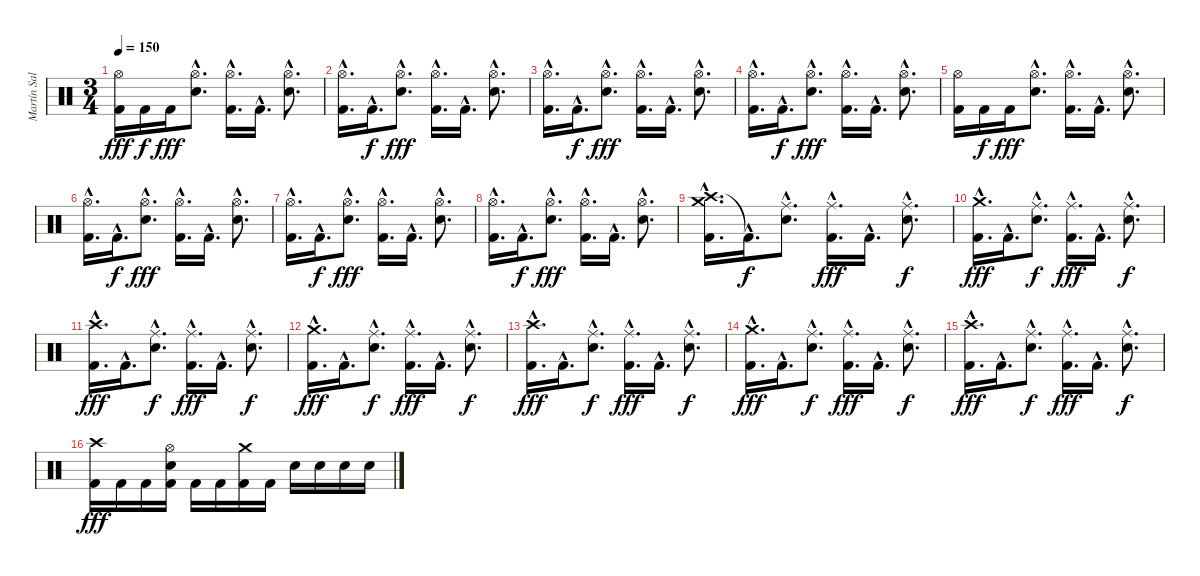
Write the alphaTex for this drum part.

\track ("Martín Salariato" "Martín Sal") {instrument percussion}
\staff {score}
\articulation defaults
\ts (3 4)
\tempo 150
\clef neutral
\ks c
("Hi-Hat (open)" "Kick (hit) 2").16{dy fff} "Kick (hit) 2".16{dy f} "Kick (hit) 2".16{dy fff} ("Hi-Hat (open)"{hac} "Snare (hit) 2"{hac}).8{d} ("Hi-Hat (open)"{hac} "Kick (hit) 2"{hac}).16{d} "Kick (hit) 2"{hac}.16{d} ("Hi-Hat (open)"{hac} "Snare (hit) 2"{hac}).8{d} |
("Hi-Hat (open)"{hac} "Kick (hit) 2"{hac}).16{d} "Kick (hit) 2"{hac}.16{d dy f} ("Hi-Hat (open)"{hac} "Snare (hit) 2"{hac}).8{d dy fff} ("Hi-Hat (open)"{hac} "Kick (hit) 2"{hac}).16{d} "Kick (hit) 2"{hac}.16{d} ("Hi-Hat (open)"{hac} "Snare (hit) 2"{hac}).8{d} |
("Hi-Hat (open)"{hac} "Kick (hit) 2"{hac}).16{d} "Kick (hit) 2"{hac}.16{d dy f} ("Hi-Hat (open)"{hac} "Snare (hit) 2"{hac}).8{d dy fff} ("Hi-Hat (open)"{hac} "Kick (hit) 2"{hac}).16{d} "Kick (hit) 2"{hac}.16{d} ("Hi-Hat (open)"{hac} "Snare (hit) 2"{hac}).8{d} |
("Hi-Hat (open)"{hac} "Kick (hit) 2"{hac}).16{d} "Kick (hit) 2"{hac}.16{d dy f} ("Hi-Hat (open)"{hac} "Snare (hit) 2"{hac}).8{d dy fff} ("Hi-Hat (open)"{hac} "Kick (hit) 2"{hac}).16{d} "Kick (hit) 2"{hac}.16{d} ("Hi-Hat (open)"{hac} "Snare (hit) 2"{hac}).8{d} |
("Hi-Hat (open)" "Kick (hit) 2").16 "Kick (hit) 2".16{dy f} "Kick (hit) 2".16{dy fff} ("Hi-Hat (open)"{hac} "Snare (hit) 2"{hac}).8{d} ("Hi-Hat (open)"{hac} "Kick (hit) 2"{hac}).16{d} "Kick (hit) 2"{hac}.16{d} ("Hi-Hat (open)"{hac} "Snare (hit) 2"{hac}).8{d} |
("Hi-Hat (open)"{hac} "Kick (hit) 2"{hac}).16{d} "Kick (hit) 2"{hac}.16{d dy f} ("Hi-Hat (open)"{hac} "Snare (hit) 2"{hac}).8{d dy fff} ("Hi-Hat (open)"{hac} "Kick (hit) 2"{hac}).16{d} "Kick (hit) 2"{hac}.16{d} ("Hi-Hat (open)"{hac} "Snare (hit) 2"{hac}).8{d} |
("Hi-Hat (open)"{hac} "Kick (hit) 2"{hac}).16{d} "Kick (hit) 2"{hac}.16{d dy f} ("Hi-Hat (open)"{hac} "Snare (hit) 2"{hac}).8{d dy fff} ("Hi-Hat (open)"{hac} "Kick (hit) 2"{hac}).16{d} "Kick (hit) 2"{hac}.16{d} ("Hi-Hat (open)"{hac} "Snare (hit) 2"{hac}).8{d} |
("Hi-Hat (open)"{hac} "Kick (hit) 2"{hac}).16{d} "Kick (hit) 2"{hac}.16{d dy f} ("Hi-Hat (open)"{hac} "Snare (hit) 2"{hac}).8{d dy fff} ("Hi-Hat (open)"{hac} "Kick (hit) 2"{hac}).16{d} "Kick (hit) 2"{hac}.16{d} ("Hi-Hat (open)"{hac} "Snare (hit) 2"{hac}).8{d} |
("Crash high (hit)"{hac} "Crash medium (hit)"{hac} "Kick (hit) 2"{hac}).16{d} "Kick (hit) 2"{hac t}.16{d dy f} ("Ride (middle)"{hac} "Snare (hit) 2"{hac}).8{d} ("Ride (middle)"{hac} "Kick (hit) 2"{hac}).16{d dy fff} "Kick (hit) 2"{hac}.16{d} ("Ride (middle)"{hac} "Snare (hit) 2"{hac}).8{d dy f} |
("Crash medium (hit)"{hac} "Kick (hit) 2"{hac}).16{d dy fff} "Kick (hit) 2"{hac}.16{d} ("Ride (middle)"{hac} "Snare (hit) 2"{hac}).8{d dy f} ("Ride (middle)"{hac} "Kick (hit) 2"{hac}).16{d dy fff} "Kick (hit) 2"{hac}.16{d} ("Ride (middle)"{hac} "Snare (hit) 2"{hac}).8{d dy f} |
("Crash high (hit)"{hac} "Kick (hit) 2"{hac}).16{d dy fff} "Kick (hit) 2"{hac}.16{d} ("Ride (middle)"{hac} "Snare (hit) 2"{hac}).8{d dy f} ("Ride (middle)"{hac} "Kick (hit) 2"{hac}).16{d dy fff} "Kick (hit) 2"{hac}.16{d} ("Ride (middle)"{hac} "Snare (hit) 2"{hac}).8{d dy f} |
("Crash medium (hit)"{hac} "Kick (hit) 2"{hac}).16{d dy fff} "Kick (hit) 2"{hac}.16{d} ("Ride (middle)"{hac} "Snare (hit) 2"{hac}).8{d dy f} ("Ride (middle)"{hac} "Kick (hit) 2"{hac}).16{d dy fff} "Kick (hit) 2"{hac}.16{d} ("Ride (middle)"{hac} "Snare (hit) 2"{hac}).8{d dy f} |
("Crash high (hit)"{hac} "Kick (hit) 2"{hac}).16{d dy fff} "Kick (hit) 2"{hac}.16{d} ("Ride (middle)"{hac} "Snare (hit) 2"{hac}).8{d dy f} ("Ride (middle)"{hac} "Kick (hit) 2"{hac}).16{d dy fff} "Kick (hit) 2"{hac}.16{d} ("Ride (middle)"{hac} "Snare (hit) 2"{hac}).8{d dy f} |
("Crash medium (hit)"{hac} "Kick (hit) 2"{hac}).16{d dy fff} "Kick (hit) 2"{hac}.16{d} ("Ride (middle)"{hac} "Snare (hit) 2"{hac}).8{d dy f} ("Ride (middle)"{hac} "Kick (hit) 2"{hac}).16{d dy fff} "Kick (hit) 2"{hac}.16{d} ("Ride (middle)"{hac} "Snare (hit) 2"{hac}).8{d dy f} |
("Crash high (hit)"{hac} "Kick (hit) 2"{hac}).16{d dy fff} "Kick (hit) 2"{hac}.16{d} ("Ride (middle)"{hac} "Snare (hit) 2"{hac}).8{d dy f} ("Ride (middle)"{hac} "Kick (hit) 2"{hac}).16{d dy fff} "Kick (hit) 2"{hac}.16{d} ("Ride (middle)"{hac} "Snare (hit) 2"{hac}).8{d dy f} |
("Crash high (hit)" "Kick (hit) 2").16{dy fff} "Kick (hit) 2".16 "Kick (hit) 2".16 ("Hi-Hat (open)" "Snare (hit) 2" "Kick (hit) 2").16 "Kick (hit) 2".16 "Kick (hit) 2".16 ("Crash medium (hit)" "Kick (hit) 2").16 "Kick (hit) 2".16 "Snare (hit) 2".16 "Snare (hit) 2".16 "Snare (hit) 2".16 "Snare (hit) 2".16
